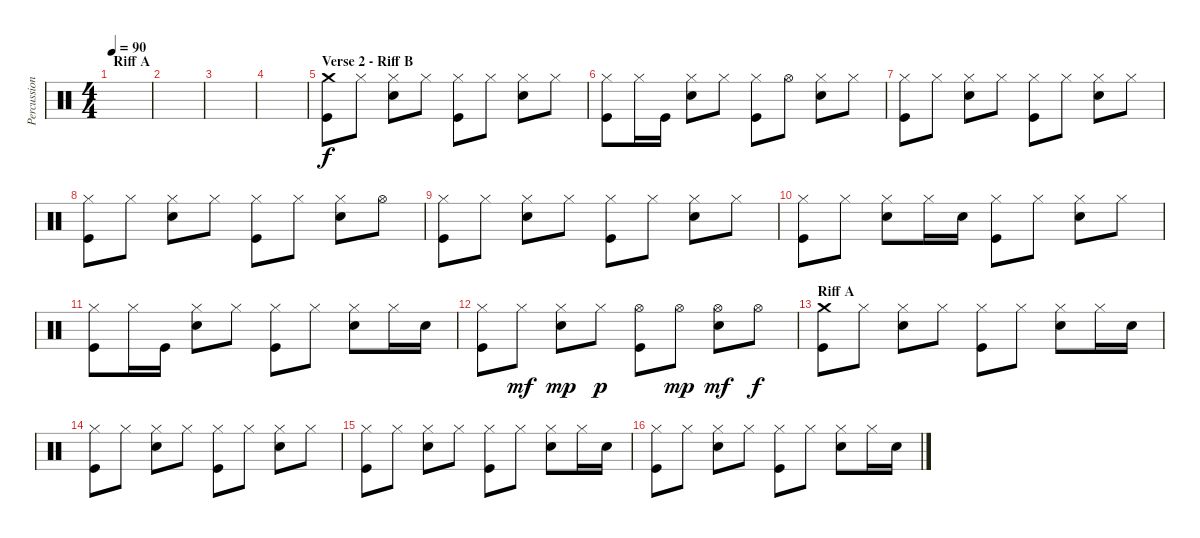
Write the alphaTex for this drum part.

\track ("Percussion (DK 0)" "Percussion") {instrument percussion}
\staff {score}
\articulation defaults
\ts (4 4)
\section ("" "Riff A")
\tempo 90
\clef neutral
\ks c
|
|
|
|
\section ("" "Verse 2 - Riff B")
("Crash medium (hit)" "Kick (hit)").8 "Hi-Hat (closed)".8 ("Hi-Hat (closed)" "Electric Snare (hit)").8 "Hi-Hat (closed)".8 ("Hi-Hat (closed)" "Kick (hit)").8 "Hi-Hat (closed)".8 ("Hi-Hat (closed)" "Electric Snare (hit)").8 "Hi-Hat (closed)".8 |
("Hi-Hat (closed)" "Kick (hit)").8 "Hi-Hat (closed)".16 "Kick (hit)".16 ("Hi-Hat (closed)" "Electric Snare (hit)").8 "Hi-Hat (closed)".8 ("Hi-Hat (closed)" "Kick (hit)").8 "Hi-Hat (open)".8 ("Hi-Hat (closed)" "Electric Snare (hit)").8 "Hi-Hat (closed)".8 |
("Hi-Hat (closed)" "Kick (hit)").8 "Hi-Hat (closed)".8 ("Hi-Hat (closed)" "Electric Snare (hit)").8 "Hi-Hat (closed)".8 ("Hi-Hat (closed)" "Kick (hit)").8 "Hi-Hat (closed)".8 ("Hi-Hat (closed)" "Electric Snare (hit)").8 "Hi-Hat (closed)".8 |
("Hi-Hat (closed)" "Kick (hit)").8 "Hi-Hat (closed)".8 ("Hi-Hat (closed)" "Electric Snare (hit)").8 "Hi-Hat (closed)".8 ("Hi-Hat (closed)" "Kick (hit)").8 "Hi-Hat (closed)".8 ("Hi-Hat (closed)" "Electric Snare (hit)").8 "Hi-Hat (open)".8 |
("Hi-Hat (closed)" "Kick (hit)").8 "Hi-Hat (closed)".8 ("Hi-Hat (closed)" "Electric Snare (hit)").8 "Hi-Hat (closed)".8 ("Hi-Hat (closed)" "Kick (hit)").8 "Hi-Hat (closed)".8 ("Hi-Hat (closed)" "Electric Snare (hit)").8 "Hi-Hat (closed)".8 |
("Hi-Hat (closed)" "Kick (hit)").8 "Hi-Hat (closed)".8 ("Hi-Hat (closed)" "Electric Snare (hit)").8 "Hi-Hat (closed)".16 "Electric Snare (hit)".16 ("Hi-Hat (closed)" "Kick (hit)").8 "Hi-Hat (closed)".8 ("Hi-Hat (closed)" "Electric Snare (hit)").8 "Hi-Hat (closed)".8 |
("Hi-Hat (closed)" "Kick (hit)").8 "Hi-Hat (closed)".16 "Kick (hit)".16 ("Hi-Hat (closed)" "Electric Snare (hit)").8 "Hi-Hat (closed)".8 ("Hi-Hat (closed)" "Kick (hit)").8 "Hi-Hat (closed)".8 ("Hi-Hat (closed)" "Electric Snare (hit)").8 "Hi-Hat (closed)".16 "Electric Snare (hit)".16 |
("Hi-Hat (closed)" "Kick (hit)").8 "Hi-Hat (closed)".8{dy mf} ("Hi-Hat (closed)" "Electric Snare (hit)").8{dy mp} "Hi-Hat (closed)".8{dy p} ("Hi-Hat (open)" "Kick (hit)").8 "Hi-Hat (open)".8{dy mp} ("Hi-Hat (open)" "Electric Snare (hit)").8{dy mf} "Hi-Hat (open)".8{dy f} |
\section ("" "Riff A")
("Crash medium (hit)" "Kick (hit)").8 "Hi-Hat (closed)".8 ("Hi-Hat (closed)" "Electric Snare (hit)").8 "Hi-Hat (closed)".8 ("Hi-Hat (closed)" "Kick (hit)").8 "Hi-Hat (closed)".8 ("Hi-Hat (closed)" "Electric Snare (hit)").8 "Hi-Hat (closed)".16 "Electric Snare (hit)".16 |
("Hi-Hat (closed)" "Kick (hit)").8 "Hi-Hat (closed)".8 ("Hi-Hat (closed)" "Electric Snare (hit)").8 "Hi-Hat (closed)".8 ("Hi-Hat (closed)" "Kick (hit)").8 "Hi-Hat (closed)".8 ("Hi-Hat (closed)" "Electric Snare (hit)").8 "Hi-Hat (closed)".8 |
("Hi-Hat (closed)" "Kick (hit)").8 "Hi-Hat (closed)".8 ("Hi-Hat (closed)" "Electric Snare (hit)").8 "Hi-Hat (closed)".8 ("Hi-Hat (closed)" "Kick (hit)").8 "Hi-Hat (closed)".8 ("Hi-Hat (closed)" "Electric Snare (hit)").8 "Hi-Hat (closed)".16 "Electric Snare (hit)".16 |
("Hi-Hat (closed)" "Kick (hit)").8 "Hi-Hat (closed)".8 ("Hi-Hat (closed)" "Electric Snare (hit)").8 "Hi-Hat (closed)".8 ("Hi-Hat (closed)" "Kick (hit)").8 "Hi-Hat (closed)".8 ("Hi-Hat (closed)" "Electric Snare (hit)").8 "Hi-Hat (closed)".16 "Electric Snare (hit)".16
